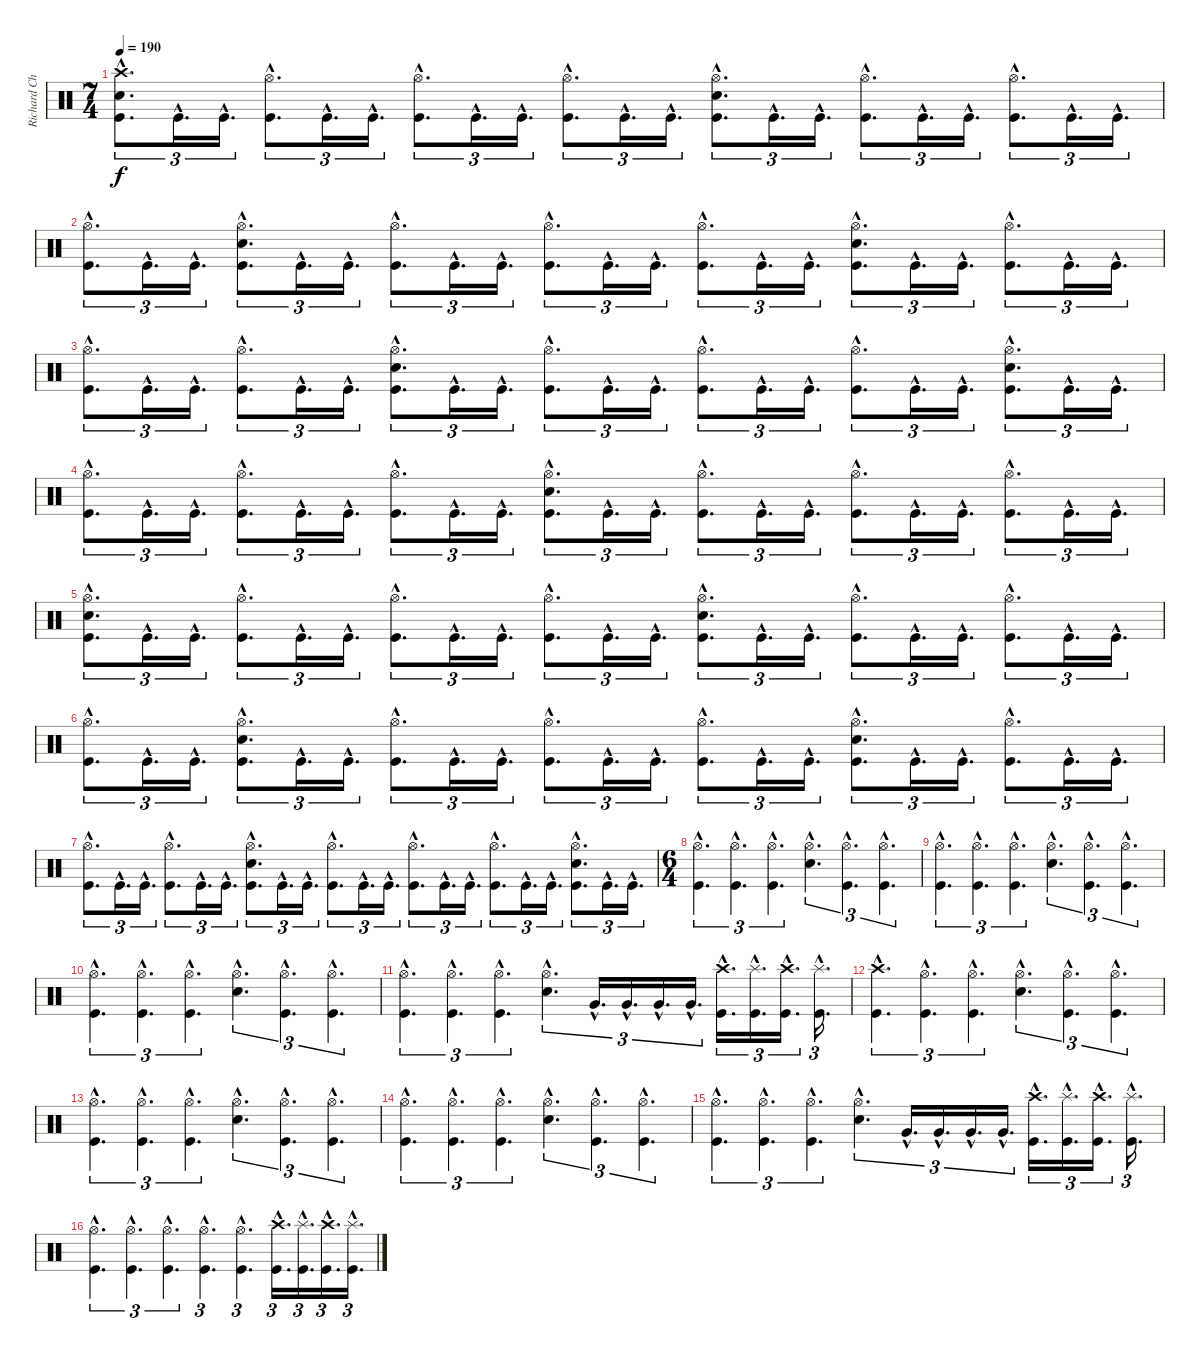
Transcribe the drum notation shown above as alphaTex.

\track ("Richard Christy" "Richard Ch") {instrument percussion}
\staff {score}
\articulation defaults
\ts (7 4)
\tempo 190
\clef neutral
\ks c
("Crash high (hit)"{hac} "Snare (hit) 2"{hac} "Kick (hit)"{hac}).8{d tu (3 2) dy f} "Kick (hit)"{hac}.16{d tu (3 2)} "Kick (hit)"{hac}.16{d tu (3 2)} ("Hi-Hat (open)"{hac} "Kick (hit)"{hac}).8{d tu (3 2)} "Kick (hit)"{hac}.16{d tu (3 2)} "Kick (hit)"{hac}.16{d tu (3 2)} ("Hi-Hat (open)"{hac} "Kick (hit)"{hac}).8{d tu (3 2)} "Kick (hit)"{hac}.16{d tu (3 2)} "Kick (hit)"{hac}.16{d tu (3 2)} ("Hi-Hat (open)"{hac} "Kick (hit)"{hac}).8{d tu (3 2)} "Kick (hit)"{hac}.16{d tu (3 2)} "Kick (hit)"{hac}.16{d tu (3 2)} ("Hi-Hat (open)"{hac} "Snare (hit) 2"{hac} "Kick (hit)"{hac}).8{d tu (3 2)} "Kick (hit)"{hac}.16{d tu (3 2)} "Kick (hit)"{hac}.16{d tu (3 2)} ("Hi-Hat (open)"{hac} "Kick (hit)"{hac}).8{d tu (3 2)} "Kick (hit)"{hac}.16{d tu (3 2)} "Kick (hit)"{hac}.16{d tu (3 2)} ("Hi-Hat (open)"{hac} "Kick (hit)"{hac}).8{d tu (3 2)} "Kick (hit)"{hac}.16{d tu (3 2)} "Kick (hit)"{hac}.16{d tu (3 2)} |
("Hi-Hat (open)"{hac} "Kick (hit)"{hac}).8{d tu (3 2)} "Kick (hit)"{hac}.16{d tu (3 2)} "Kick (hit)"{hac}.16{d tu (3 2)} ("Hi-Hat (open)"{hac} "Snare (hit) 2"{hac} "Kick (hit)"{hac}).8{d tu (3 2)} "Kick (hit)"{hac}.16{d tu (3 2)} "Kick (hit)"{hac}.16{d tu (3 2)} ("Hi-Hat (open)"{hac} "Kick (hit)"{hac}).8{d tu (3 2)} "Kick (hit)"{hac}.16{d tu (3 2)} "Kick (hit)"{hac}.16{d tu (3 2)} ("Hi-Hat (open)"{hac} "Kick (hit)"{hac}).8{d tu (3 2)} "Kick (hit)"{hac}.16{d tu (3 2)} "Kick (hit)"{hac}.16{d tu (3 2)} ("Hi-Hat (open)"{hac} "Kick (hit)"{hac}).8{d tu (3 2)} "Kick (hit)"{hac}.16{d tu (3 2)} "Kick (hit)"{hac}.16{d tu (3 2)} ("Hi-Hat (open)"{hac} "Snare (hit) 2"{hac} "Kick (hit)"{hac}).8{d tu (3 2)} "Kick (hit)"{hac}.16{d tu (3 2)} "Kick (hit)"{hac}.16{d tu (3 2)} ("Hi-Hat (open)"{hac} "Kick (hit)"{hac}).8{d tu (3 2)} "Kick (hit)"{hac}.16{d tu (3 2)} "Kick (hit)"{hac}.16{d tu (3 2)} |
("Hi-Hat (open)"{hac} "Kick (hit)"{hac}).8{d tu (3 2)} "Kick (hit)"{hac}.16{d tu (3 2)} "Kick (hit)"{hac}.16{d tu (3 2)} ("Hi-Hat (open)"{hac} "Kick (hit)"{hac}).8{d tu (3 2)} "Kick (hit)"{hac}.16{d tu (3 2)} "Kick (hit)"{hac}.16{d tu (3 2)} ("Hi-Hat (open)"{hac} "Snare (hit) 2"{hac} "Kick (hit)"{hac}).8{d tu (3 2)} "Kick (hit)"{hac}.16{d tu (3 2)} "Kick (hit)"{hac}.16{d tu (3 2)} ("Hi-Hat (open)"{hac} "Kick (hit)"{hac}).8{d tu (3 2)} "Kick (hit)"{hac}.16{d tu (3 2)} "Kick (hit)"{hac}.16{d tu (3 2)} ("Hi-Hat (open)"{hac} "Kick (hit)"{hac}).8{d tu (3 2)} "Kick (hit)"{hac}.16{d tu (3 2)} "Kick (hit)"{hac}.16{d tu (3 2)} ("Hi-Hat (open)"{hac} "Kick (hit)"{hac}).8{d tu (3 2)} "Kick (hit)"{hac}.16{d tu (3 2)} "Kick (hit)"{hac}.16{d tu (3 2)} ("Hi-Hat (open)"{hac} "Snare (hit) 2"{hac} "Kick (hit)"{hac}).8{d tu (3 2)} "Kick (hit)"{hac}.16{d tu (3 2)} "Kick (hit)"{hac}.16{d tu (3 2)} |
("Hi-Hat (open)"{hac} "Kick (hit)"{hac}).8{d tu (3 2)} "Kick (hit)"{hac}.16{d tu (3 2)} "Kick (hit)"{hac}.16{d tu (3 2)} ("Hi-Hat (open)"{hac} "Kick (hit)"{hac}).8{d tu (3 2)} "Kick (hit)"{hac}.16{d tu (3 2)} "Kick (hit)"{hac}.16{d tu (3 2)} ("Hi-Hat (open)"{hac} "Kick (hit)"{hac}).8{d tu (3 2)} "Kick (hit)"{hac}.16{d tu (3 2)} "Kick (hit)"{hac}.16{d tu (3 2)} ("Hi-Hat (open)"{hac} "Snare (hit) 2"{hac} "Kick (hit)"{hac}).8{d tu (3 2)} "Kick (hit)"{hac}.16{d tu (3 2)} "Kick (hit)"{hac}.16{d tu (3 2)} ("Hi-Hat (open)"{hac} "Kick (hit)"{hac}).8{d tu (3 2)} "Kick (hit)"{hac}.16{d tu (3 2)} "Kick (hit)"{hac}.16{d tu (3 2)} ("Hi-Hat (open)"{hac} "Kick (hit)"{hac}).8{d tu (3 2)} "Kick (hit)"{hac}.16{d tu (3 2)} "Kick (hit)"{hac}.16{d tu (3 2)} ("Hi-Hat (open)"{hac} "Kick (hit)"{hac}).8{d tu (3 2)} "Kick (hit)"{hac}.16{d tu (3 2)} "Kick (hit)"{hac}.16{d tu (3 2)} |
("Hi-Hat (open)"{hac} "Snare (hit) 2"{hac} "Kick (hit)"{hac}).8{d tu (3 2)} "Kick (hit)"{hac}.16{d tu (3 2)} "Kick (hit)"{hac}.16{d tu (3 2)} ("Hi-Hat (open)"{hac} "Kick (hit)"{hac}).8{d tu (3 2)} "Kick (hit)"{hac}.16{d tu (3 2)} "Kick (hit)"{hac}.16{d tu (3 2)} ("Hi-Hat (open)"{hac} "Kick (hit)"{hac}).8{d tu (3 2)} "Kick (hit)"{hac}.16{d tu (3 2)} "Kick (hit)"{hac}.16{d tu (3 2)} ("Hi-Hat (open)"{hac} "Kick (hit)"{hac}).8{d tu (3 2)} "Kick (hit)"{hac}.16{d tu (3 2)} "Kick (hit)"{hac}.16{d tu (3 2)} ("Hi-Hat (open)"{hac} "Snare (hit) 2"{hac} "Kick (hit)"{hac}).8{d tu (3 2)} "Kick (hit)"{hac}.16{d tu (3 2)} "Kick (hit)"{hac}.16{d tu (3 2)} ("Hi-Hat (open)"{hac} "Kick (hit)"{hac}).8{d tu (3 2)} "Kick (hit)"{hac}.16{d tu (3 2)} "Kick (hit)"{hac}.16{d tu (3 2)} ("Hi-Hat (open)"{hac} "Kick (hit)"{hac}).8{d tu (3 2)} "Kick (hit)"{hac}.16{d tu (3 2)} "Kick (hit)"{hac}.16{d tu (3 2)} |
("Hi-Hat (open)"{hac} "Kick (hit)"{hac}).8{d tu (3 2)} "Kick (hit)"{hac}.16{d tu (3 2)} "Kick (hit)"{hac}.16{d tu (3 2)} ("Hi-Hat (open)"{hac} "Snare (hit) 2"{hac} "Kick (hit)"{hac}).8{d tu (3 2)} "Kick (hit)"{hac}.16{d tu (3 2)} "Kick (hit)"{hac}.16{d tu (3 2)} ("Hi-Hat (open)"{hac} "Kick (hit)"{hac}).8{d tu (3 2)} "Kick (hit)"{hac}.16{d tu (3 2)} "Kick (hit)"{hac}.16{d tu (3 2)} ("Hi-Hat (open)"{hac} "Kick (hit)"{hac}).8{d tu (3 2)} "Kick (hit)"{hac}.16{d tu (3 2)} "Kick (hit)"{hac}.16{d tu (3 2)} ("Hi-Hat (open)"{hac} "Kick (hit)"{hac}).8{d tu (3 2)} "Kick (hit)"{hac}.16{d tu (3 2)} "Kick (hit)"{hac}.16{d tu (3 2)} ("Hi-Hat (open)"{hac} "Snare (hit) 2"{hac} "Kick (hit)"{hac}).8{d tu (3 2)} "Kick (hit)"{hac}.16{d tu (3 2)} "Kick (hit)"{hac}.16{d tu (3 2)} ("Hi-Hat (open)"{hac} "Kick (hit)"{hac}).8{d tu (3 2)} "Kick (hit)"{hac}.16{d tu (3 2)} "Kick (hit)"{hac}.16{d tu (3 2)} |
("Hi-Hat (open)"{hac} "Kick (hit)"{hac}).8{d tu (3 2)} "Kick (hit)"{hac}.16{d tu (3 2)} "Kick (hit)"{hac}.16{d tu (3 2)} ("Hi-Hat (open)"{hac} "Kick (hit)"{hac}).8{d tu (3 2)} "Kick (hit)"{hac}.16{d tu (3 2)} "Kick (hit)"{hac}.16{d tu (3 2)} ("Hi-Hat (open)"{hac} "Snare (hit) 2"{hac} "Kick (hit)"{hac}).8{d tu (3 2)} "Kick (hit)"{hac}.16{d tu (3 2)} "Kick (hit)"{hac}.16{d tu (3 2)} ("Hi-Hat (open)"{hac} "Kick (hit)"{hac}).8{d tu (3 2)} "Kick (hit)"{hac}.16{d tu (3 2)} "Kick (hit)"{hac}.16{d tu (3 2)} ("Hi-Hat (open)"{hac} "Kick (hit)"{hac}).8{d tu (3 2)} "Kick (hit)"{hac}.16{d tu (3 2)} "Kick (hit)"{hac}.16{d tu (3 2)} ("Hi-Hat (open)"{hac} "Kick (hit)"{hac}).8{d tu (3 2)} "Kick (hit)"{hac}.16{d tu (3 2)} "Kick (hit)"{hac}.16{d tu (3 2)} ("Hi-Hat (open)"{hac} "Snare (hit) 2"{hac} "Kick (hit)"{hac}).8{d tu (3 2)} "Kick (hit)"{hac}.16{d tu (3 2)} "Kick (hit)"{hac}.16{d tu (3 2)} |
\ts (6 4)
("Hi-Hat (open)"{hac} "Kick (hit)"{hac}).4{d tu (3 2)} ("Hi-Hat (open)"{hac} "Kick (hit)"{hac}).4{d tu (3 2)} ("Hi-Hat (open)"{hac} "Kick (hit)"{hac}).4{d tu (3 2)} ("Hi-Hat (open)"{hac} "Snare (hit) 2"{hac}).4{d tu (3 2)} ("Hi-Hat (open)"{hac} "Kick (hit)"{hac}).4{d tu (3 2)} ("Hi-Hat (open)"{hac} "Kick (hit)"{hac}).4{d tu (3 2)} |
("Hi-Hat (open)"{hac} "Kick (hit)"{hac}).4{d tu (3 2)} ("Hi-Hat (open)"{hac} "Kick (hit)"{hac}).4{d tu (3 2)} ("Hi-Hat (open)"{hac} "Kick (hit)"{hac}).4{d tu (3 2)} ("Hi-Hat (open)"{hac} "Snare (hit) 2"{hac}).4{d tu (3 2)} ("Hi-Hat (open)"{hac} "Kick (hit)"{hac}).4{d tu (3 2)} ("Hi-Hat (open)"{hac} "Kick (hit)"{hac}).4{d tu (3 2)} |
("Hi-Hat (open)"{hac} "Kick (hit)"{hac}).4{d tu (3 2)} ("Hi-Hat (open)"{hac} "Kick (hit)"{hac}).4{d tu (3 2)} ("Hi-Hat (open)"{hac} "Kick (hit)"{hac}).4{d tu (3 2)} ("Hi-Hat (open)"{hac} "Snare (hit) 2"{hac}).4{d tu (3 2)} ("Hi-Hat (open)"{hac} "Kick (hit)"{hac}).4{d tu (3 2)} ("Hi-Hat (open)"{hac} "Kick (hit)"{hac}).4{d tu (3 2)} |
("Hi-Hat (open)"{hac} "Kick (hit)"{hac}).4{d tu (3 2)} ("Hi-Hat (open)"{hac} "Kick (hit)"{hac}).4{d tu (3 2)} ("Hi-Hat (open)"{hac} "Kick (hit)"{hac}).4{d tu (3 2)} ("Hi-Hat (open)"{hac} "Snare (hit) 2"{hac}).4{d tu (3 2)} "Very Low Tom (hit)"{hac}.16{d tu (3 2)} "Very Low Tom (hit)"{hac}.16{d tu (3 2)} "Very Low Tom (hit)"{hac}.16{d tu (3 2)} "Very Low Tom (hit)"{hac}.16{d tu (3 2)} ("Crash high (hit)"{hac} "Kick (hit)"{hac}).16{d tu (3 2)} ("Splash (hit)"{hac} "Kick (hit)"{hac}).16{d tu (3 2)} ("Crash high (hit)"{hac} "Kick (hit)"{hac}).16{d tu (3 2)} ("Splash (hit)"{hac} "Kick (hit)"{hac}).16{d tu (3 2)} |
("Crash high (hit)"{hac} "Kick (hit)"{hac}).4{d tu (3 2)} ("Hi-Hat (open)"{hac} "Kick (hit)"{hac}).4{d tu (3 2)} ("Hi-Hat (open)"{hac} "Kick (hit)"{hac}).4{d tu (3 2)} ("Hi-Hat (open)"{hac} "Snare (hit) 2"{hac}).4{d tu (3 2)} ("Hi-Hat (open)"{hac} "Kick (hit)"{hac}).4{d tu (3 2)} ("Hi-Hat (open)"{hac} "Kick (hit)"{hac}).4{d tu (3 2)} |
("Hi-Hat (open)"{hac} "Kick (hit)"{hac}).4{d tu (3 2)} ("Hi-Hat (open)"{hac} "Kick (hit)"{hac}).4{d tu (3 2)} ("Hi-Hat (open)"{hac} "Kick (hit)"{hac}).4{d tu (3 2)} ("Hi-Hat (open)"{hac} "Snare (hit) 2"{hac}).4{d tu (3 2)} ("Hi-Hat (open)"{hac} "Kick (hit)"{hac}).4{d tu (3 2)} ("Hi-Hat (open)"{hac} "Kick (hit)"{hac}).4{d tu (3 2)} |
("Hi-Hat (open)"{hac} "Kick (hit)"{hac}).4{d tu (3 2)} ("Hi-Hat (open)"{hac} "Kick (hit)"{hac}).4{d tu (3 2)} ("Hi-Hat (open)"{hac} "Kick (hit)"{hac}).4{d tu (3 2)} ("Hi-Hat (open)"{hac} "Snare (hit) 2"{hac}).4{d tu (3 2)} ("Hi-Hat (open)"{hac} "Kick (hit)"{hac}).4{d tu (3 2)} ("Hi-Hat (open)"{hac} "Kick (hit)"{hac}).4{d tu (3 2)} |
("Hi-Hat (open)"{hac} "Kick (hit)"{hac}).4{d tu (3 2)} ("Hi-Hat (open)"{hac} "Kick (hit)"{hac}).4{d tu (3 2)} ("Hi-Hat (open)"{hac} "Kick (hit)"{hac}).4{d tu (3 2)} ("Hi-Hat (open)"{hac} "Snare (hit) 2"{hac}).4{d tu (3 2)} "Very Low Tom (hit)"{hac}.16{d tu (3 2)} "Very Low Tom (hit)"{hac}.16{d tu (3 2)} "Very Low Tom (hit)"{hac}.16{d tu (3 2)} "Very Low Tom (hit)"{hac}.16{d tu (3 2)} ("Crash high (hit)"{hac} "Kick (hit)"{hac}).16{d tu (3 2)} ("Splash (hit)"{hac} "Kick (hit)"{hac}).16{d tu (3 2)} ("Crash high (hit)"{hac} "Kick (hit)"{hac}).16{d tu (3 2)} ("Splash (hit)"{hac} "Kick (hit)"{hac}).16{d tu (3 2)} |
("Hi-Hat (open)"{hac} "Kick (hit)"{hac}).4{d tu (3 2)} ("Hi-Hat (open)"{hac} "Kick (hit)"{hac}).4{d tu (3 2)} ("Hi-Hat (open)"{hac} "Kick (hit)"{hac}).4{d tu (3 2)} ("Hi-Hat (open)"{hac} "Kick (hit)"{hac}).4{d tu (3 2)} ("Hi-Hat (open)"{hac} "Kick (hit)"{hac}).4{d tu (3 2)} ("Crash high (hit)"{hac} "Kick (hit)"{hac}).16{d tu (3 2)} ("Splash (hit)"{hac} "Kick (hit)"{hac}).16{d tu (3 2)} ("Crash high (hit)"{hac} "Kick (hit)"{hac}).16{d tu (3 2)} ("Splash (hit)"{hac} "Kick (hit)"{hac}).16{d tu (3 2)}
